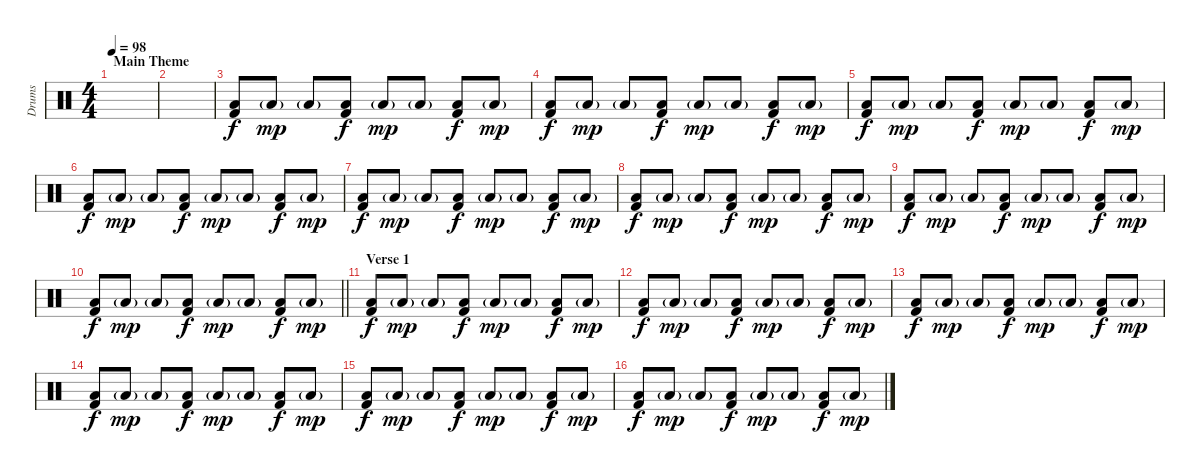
\track ("Drums" "Drums") {instrument percussion}
\staff {score}
\articulation defaults
\ts (4 4)
\section ("" "Main Theme")
\tempo 98
\clef neutral
\ks c
|
|
("Kick (hit) 2" "Low Tom (hit)").8 "Low Tom (hit)"{g}.8{dy mp} "Low Tom (hit)"{g}.8 ("Kick (hit) 2" "Low Tom (hit)").8{dy f} "Low Tom (hit)"{g}.8{dy mp} "Low Tom (hit)"{g}.8 ("Kick (hit) 2" "Low Tom (hit)").8{dy f} "Low Tom (hit)"{g}.8{dy mp} |
("Kick (hit) 2" "Low Tom (hit)").8{dy f} "Low Tom (hit)"{g}.8{dy mp} "Low Tom (hit)"{g}.8 ("Kick (hit) 2" "Low Tom (hit)").8{dy f} "Low Tom (hit)"{g}.8{dy mp} "Low Tom (hit)"{g}.8 ("Kick (hit) 2" "Low Tom (hit)").8{dy f} "Low Tom (hit)"{g}.8{dy mp} |
("Kick (hit) 2" "Low Tom (hit)").8{dy f} "Low Tom (hit)"{g}.8{dy mp} "Low Tom (hit)"{g}.8 ("Kick (hit) 2" "Low Tom (hit)").8{dy f} "Low Tom (hit)"{g}.8{dy mp} "Low Tom (hit)"{g}.8 ("Kick (hit) 2" "Low Tom (hit)").8{dy f} "Low Tom (hit)"{g}.8{dy mp} |
("Kick (hit) 2" "Low Tom (hit)").8{dy f} "Low Tom (hit)"{g}.8{dy mp} "Low Tom (hit)"{g}.8 ("Kick (hit) 2" "Low Tom (hit)").8{dy f} "Low Tom (hit)"{g}.8{dy mp} "Low Tom (hit)"{g}.8 ("Kick (hit) 2" "Low Tom (hit)").8{dy f} "Low Tom (hit)"{g}.8{dy mp} |
("Kick (hit) 2" "Low Tom (hit)").8{dy f} "Low Tom (hit)"{g}.8{dy mp} "Low Tom (hit)"{g}.8 ("Kick (hit) 2" "Low Tom (hit)").8{dy f} "Low Tom (hit)"{g}.8{dy mp} "Low Tom (hit)"{g}.8 ("Kick (hit) 2" "Low Tom (hit)").8{dy f} "Low Tom (hit)"{g}.8{dy mp} |
("Kick (hit) 2" "Low Tom (hit)").8{dy f} "Low Tom (hit)"{g}.8{dy mp} "Low Tom (hit)"{g}.8 ("Kick (hit) 2" "Low Tom (hit)").8{dy f} "Low Tom (hit)"{g}.8{dy mp} "Low Tom (hit)"{g}.8 ("Kick (hit) 2" "Low Tom (hit)").8{dy f} "Low Tom (hit)"{g}.8{dy mp} |
("Kick (hit) 2" "Low Tom (hit)").8{dy f} "Low Tom (hit)"{g}.8{dy mp} "Low Tom (hit)"{g}.8 ("Kick (hit) 2" "Low Tom (hit)").8{dy f} "Low Tom (hit)"{g}.8{dy mp} "Low Tom (hit)"{g}.8 ("Kick (hit) 2" "Low Tom (hit)").8{dy f} "Low Tom (hit)"{g}.8{dy mp} |
\barLineRight lightlight
("Kick (hit) 2" "Low Tom (hit)").8{dy f} "Low Tom (hit)"{g}.8{dy mp} "Low Tom (hit)"{g}.8 ("Kick (hit) 2" "Low Tom (hit)").8{dy f} "Low Tom (hit)"{g}.8{dy mp} "Low Tom (hit)"{g}.8 ("Kick (hit) 2" "Low Tom (hit)").8{dy f} "Low Tom (hit)"{g}.8{dy mp} |
\section ("" "Verse 1")
("Kick (hit) 2" "Low Tom (hit)").8{dy f} "Low Tom (hit)"{g}.8{dy mp} "Low Tom (hit)"{g}.8 ("Kick (hit) 2" "Low Tom (hit)").8{dy f} "Low Tom (hit)"{g}.8{dy mp} "Low Tom (hit)"{g}.8 ("Kick (hit) 2" "Low Tom (hit)").8{dy f} "Low Tom (hit)"{g}.8{dy mp} |
("Kick (hit) 2" "Low Tom (hit)").8{dy f} "Low Tom (hit)"{g}.8{dy mp} "Low Tom (hit)"{g}.8 ("Kick (hit) 2" "Low Tom (hit)").8{dy f} "Low Tom (hit)"{g}.8{dy mp} "Low Tom (hit)"{g}.8 ("Kick (hit) 2" "Low Tom (hit)").8{dy f} "Low Tom (hit)"{g}.8{dy mp} |
("Kick (hit) 2" "Low Tom (hit)").8{dy f} "Low Tom (hit)"{g}.8{dy mp} "Low Tom (hit)"{g}.8 ("Kick (hit) 2" "Low Tom (hit)").8{dy f} "Low Tom (hit)"{g}.8{dy mp} "Low Tom (hit)"{g}.8 ("Kick (hit) 2" "Low Tom (hit)").8{dy f} "Low Tom (hit)"{g}.8{dy mp} |
("Kick (hit) 2" "Low Tom (hit)").8{dy f} "Low Tom (hit)"{g}.8{dy mp} "Low Tom (hit)"{g}.8 ("Kick (hit) 2" "Low Tom (hit)").8{dy f} "Low Tom (hit)"{g}.8{dy mp} "Low Tom (hit)"{g}.8 ("Kick (hit) 2" "Low Tom (hit)").8{dy f} "Low Tom (hit)"{g}.8{dy mp} |
("Kick (hit) 2" "Low Tom (hit)").8{dy f} "Low Tom (hit)"{g}.8{dy mp} "Low Tom (hit)"{g}.8 ("Kick (hit) 2" "Low Tom (hit)").8{dy f} "Low Tom (hit)"{g}.8{dy mp} "Low Tom (hit)"{g}.8 ("Kick (hit) 2" "Low Tom (hit)").8{dy f} "Low Tom (hit)"{g}.8{dy mp} |
("Kick (hit) 2" "Low Tom (hit)").8{dy f} "Low Tom (hit)"{g}.8{dy mp} "Low Tom (hit)"{g}.8 ("Kick (hit) 2" "Low Tom (hit)").8{dy f} "Low Tom (hit)"{g}.8{dy mp} "Low Tom (hit)"{g}.8 ("Kick (hit) 2" "Low Tom (hit)").8{dy f} "Low Tom (hit)"{g}.8{dy mp}
